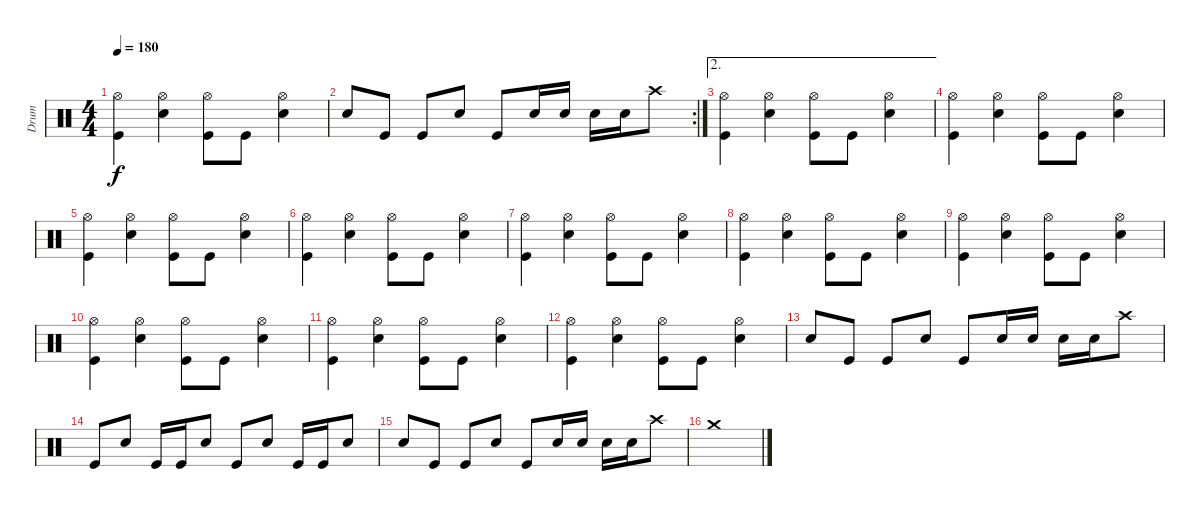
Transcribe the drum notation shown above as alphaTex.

\track ("Drum" "Drum") {instrument percussion}
\staff {score}
\articulation defaults
\ts (4 4)
\tempo 180
\clef neutral
\ks c
("Hi-Hat (open)" "Kick (hit)").4{dy f} ("Hi-Hat (open)" "Snare (hit) 2").4 ("Hi-Hat (open)" "Kick (hit)").8 "Kick (hit)".8 ("Hi-Hat (open)" "Snare (hit) 2").4 |
\rc 2 "Snare (hit) 2".8 "Kick (hit)".8 "Kick (hit)".8 "Snare (hit) 2".8 "Kick (hit)".8 "Snare (hit) 2".16 "Snare (hit) 2".16 "Snare (hit) 2".16 "Snare (hit) 2".16 "Crash high (hit)".8
|
\ae 2
("Hi-Hat (open)" "Kick (hit)").4 ("Hi-Hat (open)" "Snare (hit) 2").4 ("Hi-Hat (open)" "Kick (hit)").8 "Kick (hit)".8 ("Hi-Hat (open)" "Snare (hit) 2").4 |
("Hi-Hat (open)" "Kick (hit)").4 ("Hi-Hat (open)" "Snare (hit) 2").4 ("Hi-Hat (open)" "Kick (hit)").8 "Kick (hit)".8 ("Hi-Hat (open)" "Snare (hit) 2").4 |
("Hi-Hat (open)" "Kick (hit)").4 ("Hi-Hat (open)" "Snare (hit) 2").4 ("Hi-Hat (open)" "Kick (hit)").8 "Kick (hit)".8 ("Hi-Hat (open)" "Snare (hit) 2").4 |
("Hi-Hat (open)" "Kick (hit)").4 ("Hi-Hat (open)" "Snare (hit) 2").4 ("Hi-Hat (open)" "Kick (hit)").8 "Kick (hit)".8 ("Hi-Hat (open)" "Snare (hit) 2").4 |
("Hi-Hat (open)" "Kick (hit)").4 ("Hi-Hat (open)" "Snare (hit) 2").4 ("Hi-Hat (open)" "Kick (hit)").8 "Kick (hit)".8 ("Hi-Hat (open)" "Snare (hit) 2").4 |
("Hi-Hat (open)" "Kick (hit)").4 ("Hi-Hat (open)" "Snare (hit) 2").4 ("Hi-Hat (open)" "Kick (hit)").8 "Kick (hit)".8 ("Hi-Hat (open)" "Snare (hit) 2").4 |
("Hi-Hat (open)" "Kick (hit)").4 ("Hi-Hat (open)" "Snare (hit) 2").4 ("Hi-Hat (open)" "Kick (hit)").8 "Kick (hit)".8 ("Hi-Hat (open)" "Snare (hit) 2").4 |
("Hi-Hat (open)" "Kick (hit)").4 ("Hi-Hat (open)" "Snare (hit) 2").4 ("Hi-Hat (open)" "Kick (hit)").8 "Kick (hit)".8 ("Hi-Hat (open)" "Snare (hit) 2").4 |
("Hi-Hat (open)" "Kick (hit)").4 ("Hi-Hat (open)" "Snare (hit) 2").4 ("Hi-Hat (open)" "Kick (hit)").8 "Kick (hit)".8 ("Hi-Hat (open)" "Snare (hit) 2").4 |
("Hi-Hat (open)" "Kick (hit)").4 ("Hi-Hat (open)" "Snare (hit) 2").4 ("Hi-Hat (open)" "Kick (hit)").8 "Kick (hit)".8 ("Hi-Hat (open)" "Snare (hit) 2").4 |
"Snare (hit) 2".8 "Kick (hit)".8 "Kick (hit)".8 "Snare (hit) 2".8 "Kick (hit)".8 "Snare (hit) 2".16 "Snare (hit) 2".16 "Snare (hit) 2".16 "Snare (hit) 2".16 "Crash high (hit)".8 |
"Kick (hit)".8 "Snare (hit) 2".8 "Kick (hit)".16 "Kick (hit)".16 "Snare (hit) 2".8 "Kick (hit)".8 "Snare (hit) 2".8 "Kick (hit)".16 "Kick (hit)".16 "Snare (hit) 2".8 |
"Snare (hit) 2".8 "Kick (hit)".8 "Kick (hit)".8 "Snare (hit) 2".8 "Kick (hit)".8 "Snare (hit) 2".16 "Snare (hit) 2".16 "Snare (hit) 2".16 "Snare (hit) 2".16 "Crash high (hit)".8 |
"Crash medium (hit)".1
